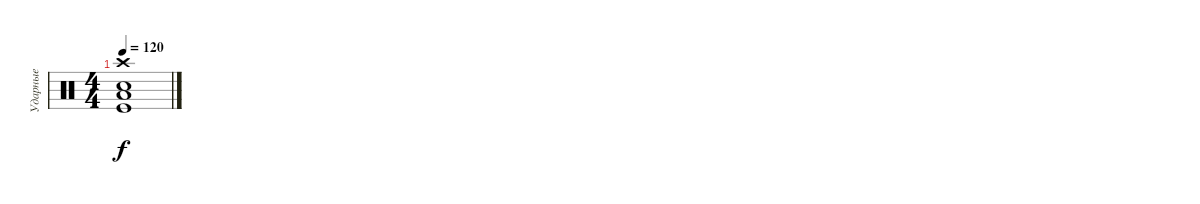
\track ("Ударные" "Ударные") {instrument percussion}
\staff {score}
\articulation defaults
\ts (4 4)
\tempo 120
\clef neutral
\ks c
("Crash high (hit)" "Snare (hit) 2" "Kick (hit)" "Low Floor Tom (hit)").1{dy f}
